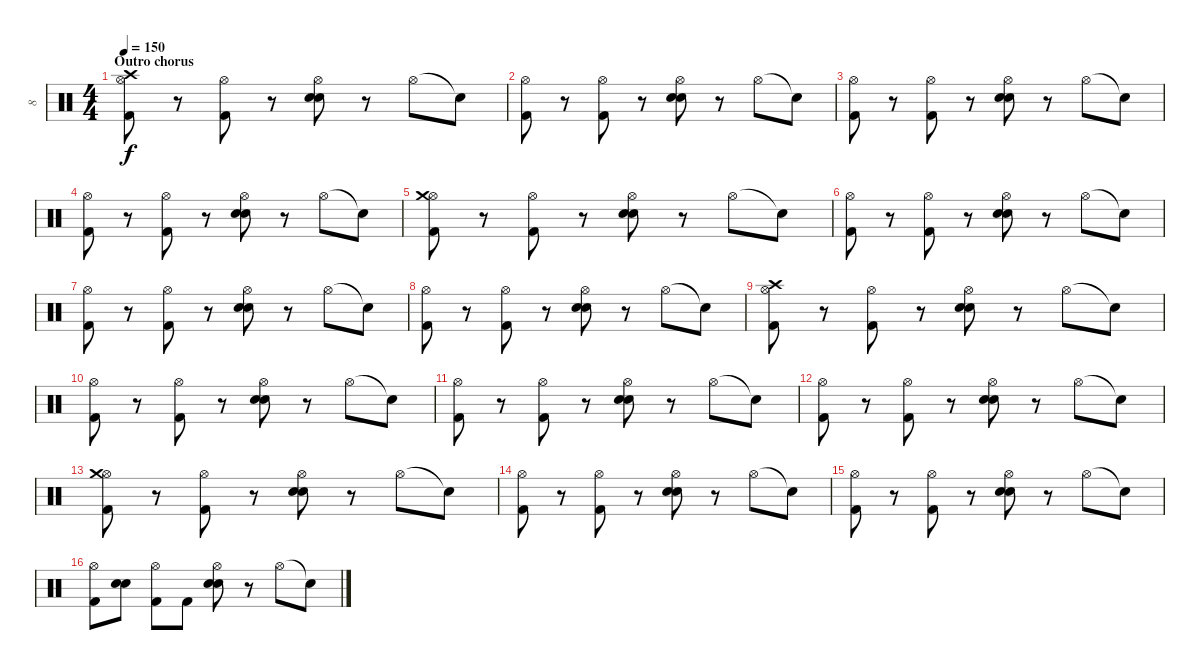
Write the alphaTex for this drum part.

\track ("8" "8") {instrument percussion}
\staff {score}
\articulation defaults
\ts (4 4)
\section ("" "Outro chorus")
\tempo 150
\clef neutral
\ks c
("Hi-Hat (open)" "Crash high (hit)" "Kick (hit) 2").8{dy f} r.8 ("Hi-Hat (open)" "Kick (hit) 2").8 r.8 ("Hi-Hat (open)" "Snare (hit) 2" "Electric Snare (hit)").8 r.8 "Hi-Hat (open)".8 "Snare (hit)"{t}.8 |
("Hi-Hat (open)" "Kick (hit) 2").8 r.8 ("Hi-Hat (open)" "Kick (hit) 2").8 r.8 ("Hi-Hat (open)" "Snare (hit) 2" "Electric Snare (hit)").8 r.8 "Hi-Hat (open)".8 "Snare (hit)"{t}.8 |
("Hi-Hat (open)" "Kick (hit) 2").8 r.8 ("Hi-Hat (open)" "Kick (hit) 2").8 r.8 ("Hi-Hat (open)" "Snare (hit) 2" "Electric Snare (hit)").8 r.8 "Hi-Hat (open)".8 "Snare (hit)"{t}.8 |
("Hi-Hat (open)" "Kick (hit) 2").8 r.8 ("Hi-Hat (open)" "Kick (hit) 2").8 r.8 ("Hi-Hat (open)" "Snare (hit) 2" "Electric Snare (hit)").8 r.8 "Hi-Hat (open)".8 "Snare (hit)"{t}.8 |
("Hi-Hat (open)" "Crash medium (hit)" "Kick (hit) 2").8 r.8 ("Hi-Hat (open)" "Kick (hit) 2").8 r.8 ("Hi-Hat (open)" "Snare (hit) 2" "Electric Snare (hit)").8 r.8 "Hi-Hat (open)".8 "Snare (hit)"{t}.8 |
("Hi-Hat (open)" "Kick (hit) 2").8 r.8 ("Hi-Hat (open)" "Kick (hit) 2").8 r.8 ("Hi-Hat (open)" "Snare (hit) 2" "Electric Snare (hit)").8 r.8 "Hi-Hat (open)".8 "Snare (hit)"{t}.8 |
("Hi-Hat (open)" "Kick (hit) 2").8 r.8 ("Hi-Hat (open)" "Kick (hit) 2").8 r.8 ("Hi-Hat (open)" "Snare (hit) 2" "Electric Snare (hit)").8 r.8 "Hi-Hat (open)".8 "Snare (hit)"{t}.8 |
("Hi-Hat (open)" "Kick (hit) 2").8 r.8 ("Hi-Hat (open)" "Kick (hit) 2").8 r.8 ("Hi-Hat (open)" "Snare (hit) 2" "Electric Snare (hit)").8 r.8 "Hi-Hat (open)".8 "Snare (hit)"{t}.8 |
("Hi-Hat (open)" "Crash high (hit)" "Kick (hit) 2").8 r.8 ("Hi-Hat (open)" "Kick (hit) 2").8 r.8 ("Hi-Hat (open)" "Snare (hit) 2" "Electric Snare (hit)").8 r.8 "Hi-Hat (open)".8 "Snare (hit)"{t}.8 |
("Hi-Hat (open)" "Kick (hit) 2").8 r.8 ("Hi-Hat (open)" "Kick (hit) 2").8 r.8 ("Hi-Hat (open)" "Snare (hit) 2" "Electric Snare (hit)").8 r.8 "Hi-Hat (open)".8 "Snare (hit)"{t}.8 |
("Hi-Hat (open)" "Kick (hit) 2").8 r.8 ("Hi-Hat (open)" "Kick (hit) 2").8 r.8 ("Hi-Hat (open)" "Snare (hit) 2" "Electric Snare (hit)").8 r.8 "Hi-Hat (open)".8 "Snare (hit)"{t}.8 |
("Hi-Hat (open)" "Kick (hit) 2").8 r.8 ("Hi-Hat (open)" "Kick (hit) 2").8 r.8 ("Hi-Hat (open)" "Snare (hit) 2" "Electric Snare (hit)").8 r.8 "Hi-Hat (open)".8 "Snare (hit)"{t}.8 |
("Hi-Hat (open)" "Crash medium (hit)" "Kick (hit) 2").8 r.8 ("Hi-Hat (open)" "Kick (hit) 2").8 r.8 ("Hi-Hat (open)" "Snare (hit) 2" "Electric Snare (hit)").8 r.8 "Hi-Hat (open)".8 "Snare (hit)"{t}.8 |
("Hi-Hat (open)" "Kick (hit) 2").8 r.8 ("Hi-Hat (open)" "Kick (hit) 2").8 r.8 ("Hi-Hat (open)" "Snare (hit) 2" "Electric Snare (hit)").8 r.8 "Hi-Hat (open)".8 "Snare (hit)"{t}.8 |
("Hi-Hat (open)" "Kick (hit) 2").8 r.8 ("Hi-Hat (open)" "Kick (hit) 2").8 r.8 ("Hi-Hat (open)" "Snare (hit) 2" "Electric Snare (hit)").8 r.8 "Hi-Hat (open)".8 "Snare (hit)"{t}.8 |
("Hi-Hat (open)" "Kick (hit) 2").8 ("Snare (hit) 2" "Electric Snare (hit)").8 ("Hi-Hat (open)" "Kick (hit) 2").8 "Kick (hit) 2".8 ("Hi-Hat (open)" "Snare (hit) 2" "Electric Snare (hit)").8 r.8 "Hi-Hat (open)".8 "Snare (hit)"{t}.8
